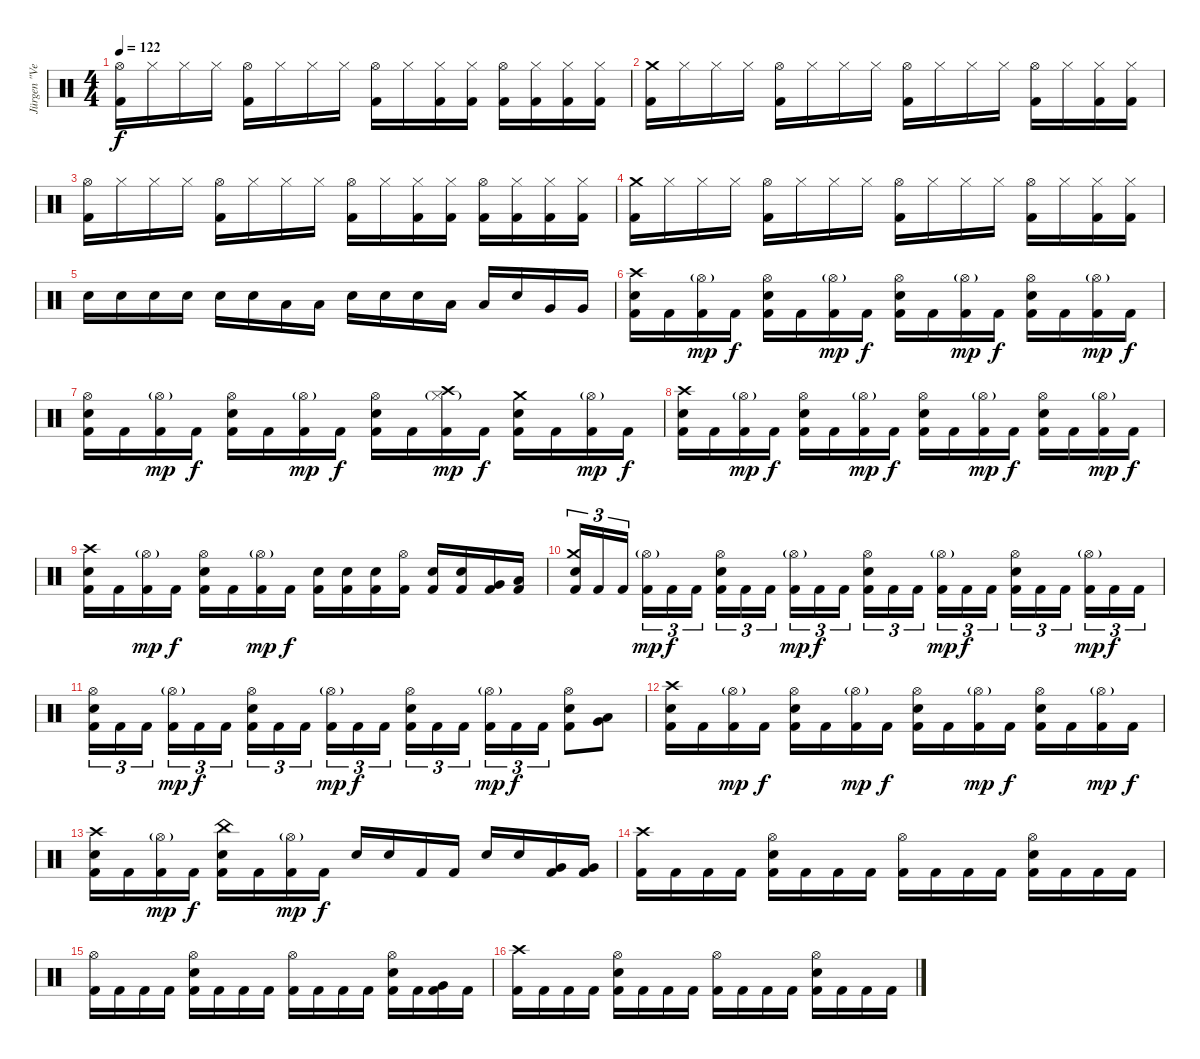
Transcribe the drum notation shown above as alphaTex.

\track ("Jürgen \"Ventor\" Reil Drums" "Jürgen \"Ve") {instrument percussion}
\staff {score}
\articulation defaults
\ts (4 4)
\tempo 122
\clef neutral
\ks c
("Hi-Hat (open)" "Kick (hit) 2").16{dy f} "Hi-Hat (closed)".16 "Hi-Hat (closed)".16 "Hi-Hat (closed)".16 ("Hi-Hat (open)" "Kick (hit) 2").16 "Hi-Hat (closed)".16 "Hi-Hat (closed)".16 "Hi-Hat (closed)".16 ("Hi-Hat (open)" "Kick (hit) 2").16 "Hi-Hat (closed)".16 ("Hi-Hat (closed)" "Kick (hit) 2").16 ("Hi-Hat (closed)" "Kick (hit) 2").16 ("Hi-Hat (open)" "Kick (hit) 2").16 ("Hi-Hat (closed)" "Kick (hit) 2").16 ("Hi-Hat (closed)" "Kick (hit) 2").16 ("Hi-Hat (closed)" "Kick (hit) 2").16 |
("Crash medium (hit)" "Kick (hit) 2").16 "Hi-Hat (closed)".16 "Hi-Hat (closed)".16 "Hi-Hat (closed)".16 ("Hi-Hat (open)" "Kick (hit) 2").16 "Hi-Hat (closed)".16 "Hi-Hat (closed)".16 "Hi-Hat (closed)".16 ("Hi-Hat (open)" "Kick (hit) 2").16 "Hi-Hat (closed)".16 "Hi-Hat (closed)".16 "Hi-Hat (closed)".16 ("Hi-Hat (open)" "Kick (hit) 2").16 "Hi-Hat (closed)".16 ("Hi-Hat (closed)" "Kick (hit) 2").16 ("Hi-Hat (closed)" "Kick (hit) 2").16 |
("Hi-Hat (open)" "Kick (hit) 2").16 "Hi-Hat (closed)".16 "Hi-Hat (closed)".16 "Hi-Hat (closed)".16 ("Hi-Hat (open)" "Kick (hit) 2").16 "Hi-Hat (closed)".16 "Hi-Hat (closed)".16 "Hi-Hat (closed)".16 ("Hi-Hat (open)" "Kick (hit) 2").16 "Hi-Hat (closed)".16 ("Hi-Hat (closed)" "Kick (hit) 2").16 ("Hi-Hat (closed)" "Kick (hit) 2").16 ("Hi-Hat (open)" "Kick (hit) 2").16 ("Hi-Hat (closed)" "Kick (hit) 2").16 ("Hi-Hat (closed)" "Kick (hit) 2").16 ("Hi-Hat (closed)" "Kick (hit) 2").16 |
("Crash medium (hit)" "Kick (hit) 2").16 "Hi-Hat (closed)".16 "Hi-Hat (closed)".16 "Hi-Hat (closed)".16 ("Hi-Hat (open)" "Kick (hit) 2").16 "Hi-Hat (closed)".16 "Hi-Hat (closed)".16 "Hi-Hat (closed)".16 ("Hi-Hat (open)" "Kick (hit) 2").16 "Hi-Hat (closed)".16 "Hi-Hat (closed)".16 "Hi-Hat (closed)".16 ("Hi-Hat (open)" "Kick (hit) 2").16 "Hi-Hat (closed)".16 ("Hi-Hat (closed)" "Kick (hit) 2").16 ("Hi-Hat (closed)" "Kick (hit) 2").16 |
"Snare (hit) 2".16 "Snare (hit) 2".16 "Snare (hit) 2".16 "Snare (hit) 2".16 "Snare (hit) 2".16 "Snare (hit) 2".16 "Low Tom (hit)".16 "Low Tom (hit)".16 "Snare (hit) 2".16 "Snare (hit) 2".16 "Snare (hit) 2".16 "Low Tom (hit)".16 "Low Tom (hit)".16 "Snare (hit) 2".16 "Very Low Tom (hit)".16 "Very Low Tom (hit)".16 |
("Snare (hit) 2" "Crash high (hit)" "Kick (hit) 2").16 "Kick (hit) 2".16 ("Hi-Hat (open)"{g} "Kick (hit) 2").16{dy mp} "Kick (hit) 2".16{dy f} ("Snare (hit) 2" "Hi-Hat (open)" "Kick (hit) 2").16 "Kick (hit) 2".16 ("Hi-Hat (open)"{g} "Kick (hit) 2").16{dy mp} "Kick (hit) 2".16{dy f} ("Snare (hit) 2" "Hi-Hat (open)" "Kick (hit) 2").16 "Kick (hit) 2".16 ("Hi-Hat (open)"{g} "Kick (hit) 2").16{dy mp} "Kick (hit) 2".16{dy f} ("Hi-Hat (open)" "Snare (hit) 2" "Kick (hit) 2").16 "Kick (hit) 2".16 ("Hi-Hat (open)"{g} "Kick (hit) 2").16{dy mp} "Kick (hit) 2".16{dy f} |
("Snare (hit) 2" "Hi-Hat (open)" "Kick (hit) 2").16 "Kick (hit) 2".16 ("Hi-Hat (open)"{g} "Kick (hit) 2").16{dy mp} "Kick (hit) 2".16{dy f} ("Snare (hit) 2" "Hi-Hat (open)" "Kick (hit) 2").16 "Kick (hit) 2".16 ("Hi-Hat (open)"{g} "Kick (hit) 2").16{dy mp} "Kick (hit) 2".16{dy f} ("Snare (hit) 2" "Hi-Hat (open)" "Kick (hit) 2").16 "Kick (hit) 2".16 ("Crash high (hit)" "Hi-Hat (closed)"{g} "Kick (hit) 2").16{dy mp} "Kick (hit) 2".16{dy f} ("Crash medium (hit)" "Snare (hit) 2" "Kick (hit) 2").16 "Kick (hit) 2".16 ("Hi-Hat (open)"{g} "Kick (hit) 2").16{dy mp} "Kick (hit) 2".16{dy f} |
("Snare (hit) 2" "Crash high (hit)" "Kick (hit) 2").16 "Kick (hit) 2".16 ("Hi-Hat (open)"{g} "Kick (hit) 2").16{dy mp} "Kick (hit) 2".16{dy f} ("Snare (hit) 2" "Hi-Hat (open)" "Kick (hit) 2").16 "Kick (hit) 2".16 ("Hi-Hat (open)"{g} "Kick (hit) 2").16{dy mp} "Kick (hit) 2".16{dy f} ("Snare (hit) 2" "Hi-Hat (open)" "Kick (hit) 2").16 "Kick (hit) 2".16 ("Hi-Hat (open)"{g} "Kick (hit) 2").16{dy mp} "Kick (hit) 2".16{dy f} ("Hi-Hat (open)" "Snare (hit) 2" "Kick (hit) 2").16 "Kick (hit) 2".16 ("Hi-Hat (open)"{g} "Kick (hit) 2").16{dy mp} "Kick (hit) 2".16{dy f} |
("Snare (hit) 2" "Crash high (hit)" "Kick (hit) 2").16 "Kick (hit) 2".16 ("Hi-Hat (open)"{g} "Kick (hit) 2").16{dy mp} "Kick (hit) 2".16{dy f} ("Snare (hit) 2" "Hi-Hat (open)" "Kick (hit) 2").16 "Kick (hit) 2".16 ("Hi-Hat (open)"{g} "Kick (hit) 2").16{dy mp} "Kick (hit) 2".16{dy f} ("Snare (hit) 2" "Kick (hit) 2").16 ("Snare (hit) 2" "Kick (hit) 2").16 ("Snare (hit) 2" "Kick (hit) 2").16 ("Hi-Hat (open)" "Kick (hit) 2").16 ("Snare (hit) 2" "Kick (hit) 2").16 ("Snare (hit) 2" "Kick (hit) 2").16 ("Very Low Tom (hit)" "Kick (hit) 2").16 ("Low Floor Tom (hit)" "Kick (hit) 2").16 |
("Crash medium (hit)" "Snare (hit) 2" "Kick (hit) 2").16{tu (3 2)} "Kick (hit) 2".16{tu (3 2)} "Kick (hit) 2".16{tu (3 2)} ("Hi-Hat (open)"{g} "Kick (hit) 2").16{tu (3 2) dy mp} "Kick (hit) 2".16{tu (3 2) dy f} "Kick (hit) 2".16{tu (3 2)} ("Hi-Hat (open)" "Snare (hit) 2" "Kick (hit) 2").16{tu (3 2)} "Kick (hit) 2".16{tu (3 2)} "Kick (hit) 2".16{tu (3 2)} ("Hi-Hat (open)"{g} "Kick (hit) 2").16{tu (3 2) dy mp} "Kick (hit) 2".16{tu (3 2) dy f} "Kick (hit) 2".16{tu (3 2)} ("Hi-Hat (open)" "Snare (hit) 2" "Kick (hit) 2").16{tu (3 2)} "Kick (hit) 2".16{tu (3 2)} "Kick (hit) 2".16{tu (3 2)} ("Hi-Hat (open)"{g} "Kick (hit) 2").16{tu (3 2) dy mp} "Kick (hit) 2".16{tu (3 2) dy f} "Kick (hit) 2".16{tu (3 2)} ("Hi-Hat (open)" "Snare (hit) 2" "Kick (hit) 2").16{tu (3 2)} "Kick (hit) 2".16{tu (3 2)} "Kick (hit) 2".16{tu (3 2)} ("Hi-Hat (open)"{g} "Kick (hit) 2").16{tu (3 2) dy mp} "Kick (hit) 2".16{tu (3 2) dy f} "Kick (hit) 2".16{tu (3 2)} |
("Hi-Hat (open)" "Snare (hit) 2" "Kick (hit) 2").16{tu (3 2)} "Kick (hit) 2".16{tu (3 2)} "Kick (hit) 2".16{tu (3 2)} ("Hi-Hat (open)"{g} "Kick (hit) 2").16{tu (3 2) dy mp} "Kick (hit) 2".16{tu (3 2) dy f} "Kick (hit) 2".16{tu (3 2)} ("Hi-Hat (open)" "Snare (hit) 2" "Kick (hit) 2").16{tu (3 2)} "Kick (hit) 2".16{tu (3 2)} "Kick (hit) 2".16{tu (3 2)} ("Hi-Hat (open)"{g} "Kick (hit) 2").16{tu (3 2) dy mp} "Kick (hit) 2".16{tu (3 2) dy f} "Kick (hit) 2".16{tu (3 2)} ("Hi-Hat (open)" "Snare (hit) 2" "Kick (hit) 2").16{tu (3 2)} "Kick (hit) 2".16{tu (3 2)} "Kick (hit) 2".16{tu (3 2)} ("Hi-Hat (open)"{g} "Kick (hit) 2").16{tu (3 2) dy mp} "Kick (hit) 2".16{tu (3 2) dy f} "Kick (hit) 2".16{tu (3 2)} ("Hi-Hat (open)" "Snare (hit) 2" "Kick (hit) 2").8 ("Low Tom (hit)" "Very Low Tom (hit)").8 |
("Snare (hit) 2" "Crash high (hit)" "Kick (hit) 2").16 "Kick (hit) 2".16 ("Hi-Hat (open)"{g} "Kick (hit) 2").16{dy mp} "Kick (hit) 2".16{dy f} ("Snare (hit) 2" "Hi-Hat (open)" "Kick (hit) 2").16 "Kick (hit) 2".16 ("Hi-Hat (open)"{g} "Kick (hit) 2").16{dy mp} "Kick (hit) 2".16{dy f} ("Snare (hit) 2" "Hi-Hat (open)" "Kick (hit) 2").16 "Kick (hit) 2".16 ("Hi-Hat (open)"{g} "Kick (hit) 2").16{dy mp} "Kick (hit) 2".16{dy f} ("Hi-Hat (open)" "Snare (hit) 2" "Kick (hit) 2").16 "Kick (hit) 2".16 ("Hi-Hat (open)"{g} "Kick (hit) 2").16{dy mp} "Kick (hit) 2".16{dy f} |
("Snare (hit) 2" "Crash high (hit)" "Kick (hit) 2").16 "Kick (hit) 2".16 ("Hi-Hat (open)"{g} "Kick (hit) 2").16{dy mp} "Kick (hit) 2".16{dy f} ("Snare (hit) 2" "China (hit)" "Kick (hit) 2").16 "Kick (hit) 2".16 ("Hi-Hat (open)"{g} "Kick (hit) 2").16{dy mp} "Kick (hit) 2".16{dy f} "Snare (hit) 2".16 "Snare (hit) 2".16 "Kick (hit) 2".16 "Kick (hit) 2".16 "Snare (hit) 2".16 "Snare (hit) 2".16 ("Very Low Tom (hit)" "Kick (hit) 2").16 ("Very Low Tom (hit)" "Kick (hit) 2").16 |
("Crash high (hit)" "Kick (hit) 2").16 "Kick (hit) 2".16 "Kick (hit) 2".16 "Kick (hit) 2".16 ("Snare (hit) 2" "Hi-Hat (open)" "Kick (hit) 2").16 "Kick (hit) 2".16 "Kick (hit) 2".16 "Kick (hit) 2".16 ("Hi-Hat (open)" "Kick (hit) 2").16 "Kick (hit) 2".16 "Kick (hit) 2".16 "Kick (hit) 2".16 ("Snare (hit) 2" "Hi-Hat (open)" "Kick (hit) 2").16 "Kick (hit) 2".16 "Kick (hit) 2".16 "Kick (hit) 2".16 |
("Hi-Hat (open)" "Kick (hit) 2").16 "Kick (hit) 2".16 "Kick (hit) 2".16 "Kick (hit) 2".16 ("Snare (hit) 2" "Hi-Hat (open)" "Kick (hit) 2").16 "Kick (hit) 2".16 "Kick (hit) 2".16 "Kick (hit) 2".16 ("Hi-Hat (open)" "Kick (hit) 2").16 "Kick (hit) 2".16 "Kick (hit) 2".16 "Kick (hit) 2".16 ("Hi-Hat (open)" "Snare (hit) 2" "Kick (hit) 2").16 "Kick (hit) 2".16 ("Very Low Tom (hit)" "Kick (hit) 2").16 "Kick (hit) 2".16 |
("Crash high (hit)" "Kick (hit) 2").16 "Kick (hit) 2".16 "Kick (hit) 2".16 "Kick (hit) 2".16 ("Snare (hit) 2" "Hi-Hat (open)" "Kick (hit) 2").16 "Kick (hit) 2".16 "Kick (hit) 2".16 "Kick (hit) 2".16 ("Hi-Hat (open)" "Kick (hit) 2").16 "Kick (hit) 2".16 "Kick (hit) 2".16 "Kick (hit) 2".16 ("Snare (hit) 2" "Hi-Hat (open)" "Kick (hit) 2").16 "Kick (hit) 2".16 "Kick (hit) 2".16 "Kick (hit) 2".16
